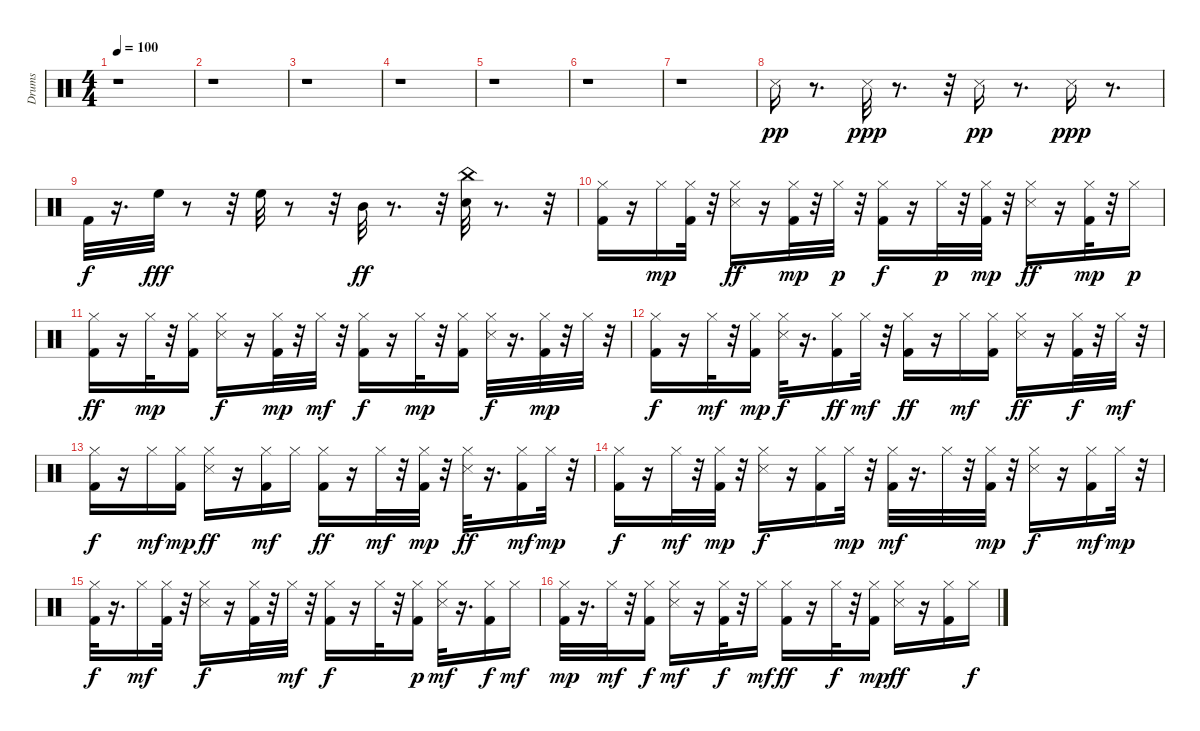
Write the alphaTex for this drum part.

\track ("Drums" "Drums") {instrument percussion}
\staff {score}
\articulation defaults
\ts (4 4)
\tempo 100
\clef neutral
\ks c
r.1{dy pp} |
r.1 |
r.1 |
r.1 |
r.1 |
r.1 |
r.1 |
"Snare (side stick) 3".16 r.8{d} "Snare (side stick) 3".32{dy ppp} r.8{d} r.32 "Snare (side stick) 3".16{dy pp} r.8{d} "Snare (side stick) 3".16{dy ppp} r.8{d} |
"Kick (hit) 2".32{dy f} r.16{d} "High Floor Tom (hit)".32{dy fff} r.8 r.32 "High Floor Tom (hit)".32 r.8 r.32 "Mid Tom (hit)".32{dy ff} r.8{d} r.32 ("China (hit)" "Snare (hit) 2").32 r.8{d} r.32 |
("Kick (hit) 2" "Hi-Hat (closed)").16 r.16 "Hi-Hat (closed)".16{dy mp} ("Kick (hit) 2" "Hi-Hat (closed)").32 r.32 ("Hi-Hat (closed)" "Snare (side stick) 3").16{dy ff} r.16 ("Hi-Hat (closed)" "Kick (hit) 2").32{dy mp} r.32 "Hi-Hat (closed)".32{dy p} r.32 ("Kick (hit) 2" "Hi-Hat (closed)").16{dy f} r.16 "Hi-Hat (closed)".32{dy p} r.32 ("Kick (hit) 2" "Hi-Hat (closed)").32{dy mp} r.32 ("Hi-Hat (closed)" "Snare (side stick) 3").16{dy ff} r.16 ("Kick (hit) 2" "Hi-Hat (closed)").32{dy mp} r.32 "Hi-Hat (closed)".16{dy p} |
("Kick (hit) 2" "Hi-Hat (closed)").16{dy ff} r.16 "Hi-Hat (closed)".32{dy mp} r.32 ("Kick (hit) 2" "Hi-Hat (closed)").16 ("Hi-Hat (closed)" "Snare (side stick) 3").16{dy f} r.16 ("Kick (hit) 2" "Hi-Hat (closed)").32{dy mp} r.32 "Hi-Hat (closed)".32{dy mf} r.32 ("Kick (hit) 2" "Hi-Hat (closed)").16{dy f} r.16 "Hi-Hat (closed)".32{dy mp} r.32 ("Hi-Hat (closed)" "Kick (hit) 2").16 ("Hi-Hat (closed)" "Snare (side stick) 3").32{dy f} r.16{d} ("Kick (hit) 2" "Hi-Hat (closed)").32{dy mp} r.32 "Hi-Hat (closed)".32 r.32 |
("Hi-Hat (closed)" "Kick (hit) 2").16{dy f} r.16 "Hi-Hat (closed)".32{dy mf} r.32 ("Hi-Hat (closed)" "Kick (hit) 2").16{dy mp} ("Hi-Hat (closed)" "Snare (side stick) 3").32{dy f} r.16{d} ("Hi-Hat (closed)" "Kick (hit) 2").16{dy ff} "Hi-Hat (closed)".32{dy mf} r.32 ("Hi-Hat (closed)" "Kick (hit) 2").16{dy ff} r.16 "Hi-Hat (closed)".16{dy mf} ("Kick (hit) 2" "Hi-Hat (closed)").16 ("Hi-Hat (closed)" "Snare (side stick) 3").16{dy ff} r.16 ("Hi-Hat (closed)" "Kick (hit) 2").32{dy f} r.32 "Hi-Hat (closed)".32{dy mf} r.32 |
("Hi-Hat (closed)" "Kick (hit) 2").16{dy f} r.16 "Hi-Hat (closed)".16{dy mf} ("Kick (hit) 2" "Hi-Hat (closed)").16{dy mp} ("Hi-Hat (closed)" "Snare (side stick) 3").16{dy ff} r.16 ("Kick (hit) 2" "Hi-Hat (closed)").16{dy mf} "Hi-Hat (closed)".16 ("Kick (hit) 2" "Hi-Hat (closed)").16{dy ff} r.16 "Hi-Hat (closed)".32{dy mf} r.32 ("Kick (hit) 2" "Hi-Hat (closed)").32{dy mp} r.32 ("Snare (side stick) 3" "Hi-Hat (closed)").32{dy ff} r.16{d} ("Hi-Hat (closed)" "Kick (hit) 2").16{dy mf} "Hi-Hat (closed)".32{dy mp} r.32 |
("Kick (hit) 2" "Hi-Hat (closed)").16{dy f} r.16 "Hi-Hat (closed)".32{dy mf} r.32 ("Hi-Hat (closed)" "Kick (hit) 2").32{dy mp} r.32 ("Hi-Hat (closed)" "Snare (side stick) 3").16{dy f} r.16 ("Hi-Hat (closed)" "Kick (hit) 2").16 "Hi-Hat (closed)".32{dy mp} r.32 ("Kick (hit) 2" "Hi-Hat (closed)").32{dy mf} r.16{d} "Hi-Hat (closed)".32 r.32 ("Kick (hit) 2" "Hi-Hat (closed)").32{dy mp} r.32 ("Hi-Hat (closed)" "Snare (side stick) 3").16{dy f} r.16 ("Kick (hit) 2" "Hi-Hat (closed)").16{dy mf} "Hi-Hat (closed)".32{dy mp} r.32 |
("Hi-Hat (closed)" "Kick (hit) 2").32{dy f} r.16{d} "Hi-Hat (closed)".16{dy mf} ("Kick (hit) 2" "Hi-Hat (closed)").32 r.32 ("Hi-Hat (closed)" "Snare (side stick) 3").16{dy f} r.16 ("Kick (hit) 2" "Hi-Hat (closed)").32 r.32 "Hi-Hat (closed)".32{dy mf} r.32 ("Hi-Hat (closed)" "Kick (hit) 2").16{dy f} r.16 "Hi-Hat (closed)".32 r.32 ("Kick (hit) 2" "Hi-Hat (closed)").16{dy p} ("Hi-Hat (closed)" "Snare (side stick) 3").32{dy mf} r.16{d} ("Kick (hit) 2" "Hi-Hat (closed)").16{dy f} "Hi-Hat (closed)".16{dy mf} |
("Hi-Hat (closed)" "Kick (hit) 2").32{dy mp} r.16{d} "Hi-Hat (closed)".32{dy mf} r.32 ("Hi-Hat (closed)" "Kick (hit) 2").16{dy f} ("Hi-Hat (closed)" "Snare (side stick) 3").16{dy mf} r.16 ("Hi-Hat (closed)" "Kick (hit) 2").32{dy f} r.32 "Hi-Hat (closed)".16{dy mf} ("Hi-Hat (closed)" "Kick (hit) 2").16{dy ff} r.16 "Hi-Hat (closed)".32{dy f} r.32 ("Hi-Hat (closed)" "Kick (hit) 2").16{dy mp} ("Hi-Hat (closed)" "Snare (side stick) 3").16{dy ff} r.16 ("Kick (hit) 2" "Hi-Hat (closed)").16 "Hi-Hat (closed)".16{dy f}
